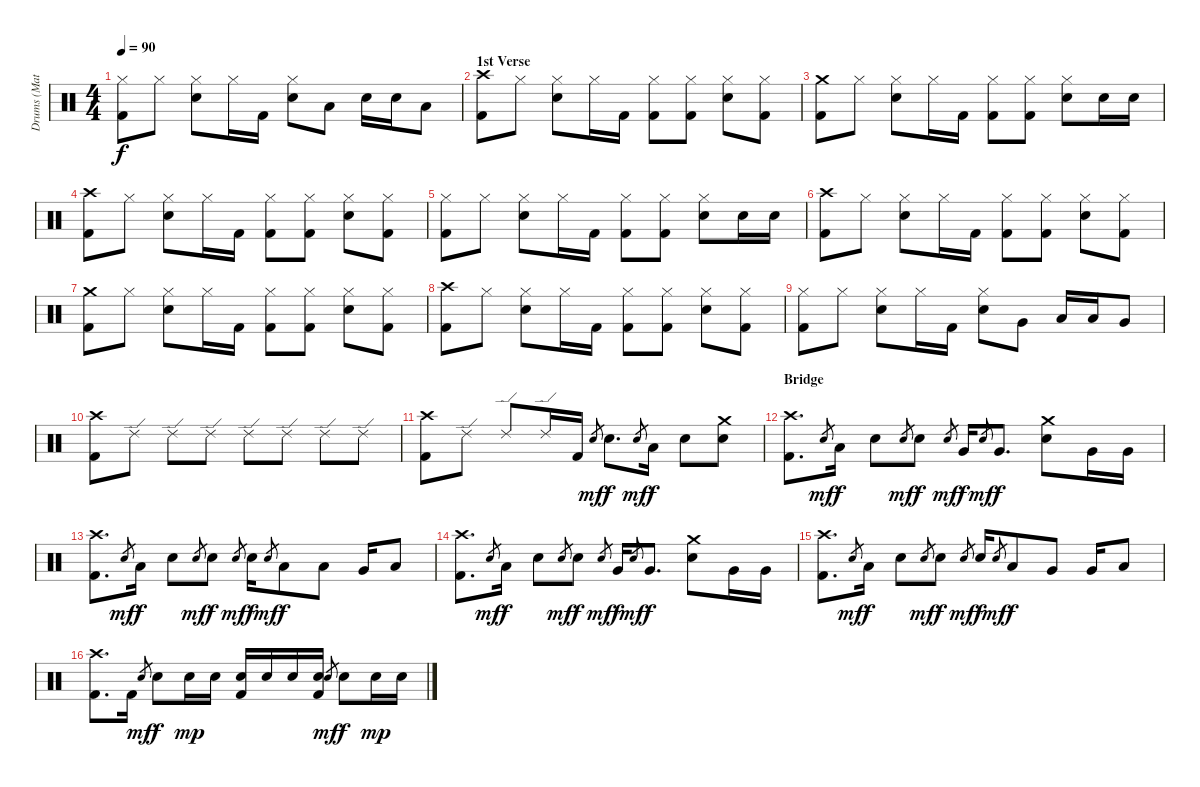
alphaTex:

\track ("Drums (Matt)" "Drums (Mat") {instrument percussion}
\staff {score}
\articulation defaults
\ts (4 4)
\tempo 90
\clef neutral
\ks c
("Hi-Hat (closed)" "Kick (hit) 2").8{dy f} "Hi-Hat (closed)".8 ("Hi-Hat (closed)" "Snare (hit) 2").8 "Hi-Hat (closed)".16 "Kick (hit) 2".16 ("Hi-Hat (closed)" "Snare (hit) 2").8 "Low Tom (hit)".8 "Snare (hit) 2".16 "Snare (hit) 2".16 "Low Tom (hit)".8 |
\section ("" "1st Verse")
("Crash high (hit)" "Kick (hit) 2").8 "Hi-Hat (closed)".8 ("Hi-Hat (closed)" "Snare (hit) 2").8 "Hi-Hat (closed)".16 "Kick (hit) 2".16 ("Hi-Hat (closed)" "Kick (hit) 2").8 ("Hi-Hat (closed)" "Kick (hit) 2").8 ("Hi-Hat (closed)" "Snare (hit) 2").8 ("Hi-Hat (closed)" "Kick (hit) 2").8 |
("Crash medium (hit)" "Kick (hit) 2").8 "Hi-Hat (closed)".8 ("Hi-Hat (closed)" "Snare (hit) 2").8 "Hi-Hat (closed)".16 "Kick (hit) 2".16 ("Hi-Hat (closed)" "Kick (hit) 2").8 ("Hi-Hat (closed)" "Kick (hit) 2").8 ("Hi-Hat (closed)" "Snare (hit) 2").8 "Snare (hit) 2".16 "Snare (hit) 2".16 |
("Crash high (hit)" "Kick (hit) 2").8 "Hi-Hat (closed)".8 ("Hi-Hat (closed)" "Snare (hit) 2").8 "Hi-Hat (closed)".16 "Kick (hit) 2".16 ("Hi-Hat (closed)" "Kick (hit) 2").8 ("Hi-Hat (closed)" "Kick (hit) 2").8 ("Hi-Hat (closed)" "Snare (hit) 2").8 ("Hi-Hat (closed)" "Kick (hit) 2").8 |
("Hi-Hat (closed)" "Kick (hit) 2").8 "Hi-Hat (closed)".8 ("Hi-Hat (closed)" "Snare (hit) 2").8 "Hi-Hat (closed)".16 "Kick (hit) 2".16 ("Hi-Hat (closed)" "Kick (hit) 2").8 ("Hi-Hat (closed)" "Kick (hit) 2").8 ("Hi-Hat (closed)" "Snare (hit) 2").8 "Snare (hit) 2".16 "Snare (hit) 2".16 |
("Crash high (hit)" "Kick (hit) 2").8 "Hi-Hat (closed)".8 ("Hi-Hat (closed)" "Snare (hit) 2").8 "Hi-Hat (closed)".16 "Kick (hit) 2".16 ("Hi-Hat (closed)" "Kick (hit) 2").8 ("Hi-Hat (closed)" "Kick (hit) 2").8 ("Hi-Hat (closed)" "Snare (hit) 2").8 ("Hi-Hat (closed)" "Kick (hit) 2").8 |
("Crash medium (hit)" "Kick (hit) 2").8 "Hi-Hat (closed)".8 ("Hi-Hat (closed)" "Snare (hit) 2").8 "Hi-Hat (closed)".16 "Kick (hit) 2".16 ("Hi-Hat (closed)" "Kick (hit) 2").8 ("Hi-Hat (closed)" "Kick (hit) 2").8 ("Hi-Hat (closed)" "Snare (hit) 2").8 ("Hi-Hat (closed)" "Kick (hit) 2").8 |
("Crash high (hit)" "Kick (hit) 2").8 "Hi-Hat (closed)".8 ("Hi-Hat (closed)" "Snare (hit) 2").8 "Hi-Hat (closed)".16 "Kick (hit) 2".16 ("Hi-Hat (closed)" "Kick (hit) 2").8 ("Hi-Hat (closed)" "Kick (hit) 2").8 ("Hi-Hat (closed)" "Snare (hit) 2").8 ("Hi-Hat (closed)" "Kick (hit) 2").8 |
("Hi-Hat (closed)" "Kick (hit) 2").8 "Hi-Hat (closed)".8 ("Hi-Hat (closed)" "Snare (hit) 2").8 "Hi-Hat (closed)".16 "Kick (hit) 2".16 ("Hi-Hat (closed)" "Snare (hit) 2").8 "Very Low Tom (hit)".8 "Low Tom (hit)".16 "Low Tom (hit)".16 "Very Low Tom (hit)".8 |
("Crash high (hit)" "Kick (hit) 2").8 "Ride (edge) 2".8 "Ride (edge) 2".8 "Ride (edge) 2".8 "Ride (edge) 2".8 "Ride (edge) 2".8 "Ride (edge) 2".8 "Ride (edge) 2".8 |
("Crash high (hit)" "Kick (hit) 2").8 "Ride (edge) 2".8 "Ride (edge) 2".8 "Ride (edge) 2".16 "Kick (hit) 2".16 "Snare (hit)".8{gr dy mf} "Snare (hit) 2".8{d dy f} "Snare (hit)".8{gr dy mf} "Low Tom (hit)".16{dy f} "Snare (hit)".8 ("Crash medium (hit)" "Snare (hit) 2").8 |
\section ("" "Bridge")
("Crash high (hit)" "Kick (hit) 2").8{d} "Snare (hit)".8{gr dy mf} "Low Tom (hit)".16{dy f} "Snare (hit)".8 "Snare (hit)".8{gr dy mf} "Snare (hit) 2".8{dy f} "Snare (hit)".8{gr dy mf} "Very Low Tom (hit)".16{dy f} "Snare (hit)".8{gr dy mf} "Very Low Tom (hit)".8{d dy f} ("Crash medium (hit)" "Snare (hit) 2").8 "Very Low Tom (hit)".16 "Very Low Tom (hit)".16 |
("Crash high (hit)" "Kick (hit) 2").8{d} "Snare (hit)".8{gr dy mf} "Low Tom (hit)".16{dy f} "Snare (hit)".8 "Snare (hit)".8{gr dy mf} "Snare (hit) 2".8{dy f} "Snare (hit)".8{gr dy mf} "Snare (hit) 2".16{dy f} "Snare (hit)".8{gr dy mf} "Low Tom (hit)".8{dy f} "Low Tom (hit)".8 "Very Low Tom (hit)".16 "Low Floor Tom (hit)".8 |
("Crash high (hit)" "Kick (hit) 2").8{d} "Snare (hit)".8{gr dy mf} "Low Tom (hit)".16{dy f} "Snare (hit)".8 "Snare (hit)".8{gr dy mf} "Snare (hit) 2".8{dy f} "Snare (hit)".8{gr dy mf} "Very Low Tom (hit)".16{dy f} "Snare (hit)".8{gr dy mf} "Very Low Tom (hit)".8{d dy f} ("Crash medium (hit)" "Snare (hit) 2").8 "Very Low Tom (hit)".16 "Very Low Tom (hit)".16 |
("Crash high (hit)" "Kick (hit) 2").8{d} "Snare (hit)".8{gr dy mf} "Low Tom (hit)".16{dy f} "Snare (hit)".8 "Snare (hit)".8{gr dy mf} "Snare (hit) 2".8{dy f} "Snare (hit)".8{gr dy mf} "Snare (hit) 2".16{dy f} "Snare (hit)".8{gr dy mf} "Low Tom (hit)".8{dy f} "Very Low Tom (hit)".8 "Very Low Tom (hit)".16 "Low Floor Tom (hit)".8 |
("Crash high (hit)" "Kick (hit) 2").8{d} "Kick (hit) 2".16 "Snare (hit)".8{gr dy mf} "Snare (hit) 2".8{dy f} "Snare (hit) 2".16{dy mp} "Snare (hit) 2".16 ("Snare (hit) 2" "Kick (hit) 2").16 "Snare (hit) 2".16 "Snare (hit) 2".16 ("Snare (hit) 2" "Kick (hit) 2").16 "Snare (hit)".8{gr dy mf} "Snare (hit) 2".8{dy f} "Snare (hit) 2".16{dy mp} "Snare (hit) 2".16
